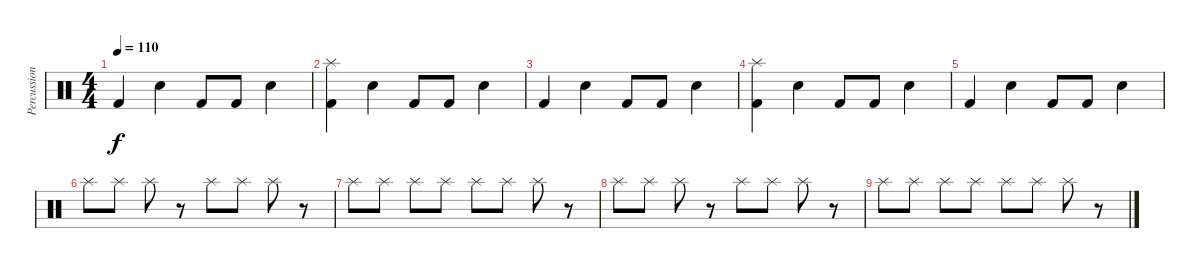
\track ("Percussion" "Percussion") {instrument percussion}
\staff {score}
\articulation defaults
\ts (4 4)
\tempo 110
\clef neutral
\ks c "Kick (hit) 2".4{dy f} "Electric Snare (hit)".4 "Kick (hit) 2".8 "Kick (hit) 2".8 "Electric Snare (hit)".4
|
("Splash (hit)" "Kick (hit) 2").4 "Electric Snare (hit)".4 "Kick (hit) 2".8 "Kick (hit) 2".8 "Electric Snare (hit)".4 |
"Kick (hit) 2".4 "Electric Snare (hit)".4 "Kick (hit) 2".8 "Kick (hit) 2".8 "Electric Snare (hit)".4 |
("Splash (hit)" "Kick (hit) 2").4 "Electric Snare (hit)".4 "Kick (hit) 2".8 "Kick (hit) 2".8 "Electric Snare (hit)".4 |
"Kick (hit) 2".4 "Electric Snare (hit)".4 "Kick (hit) 2".8 "Kick (hit) 2".8 "Electric Snare (hit)".4 |
"Splash (hit)".8 "Splash (hit)".8 "Splash (hit)".8 r.8 "Splash (hit)".8 "Splash (hit)".8 "Splash (hit)".8 r.8 |
"Splash (hit)".8 "Splash (hit)".8 "Splash (hit)".8 "Splash (hit)".8 "Splash (hit)".8 "Splash (hit)".8 "Splash (hit)".8 r.8 |
"Splash (hit)".8 "Splash (hit)".8 "Splash (hit)".8 r.8 "Splash (hit)".8 "Splash (hit)".8 "Splash (hit)".8 r.8 |
"Splash (hit)".8 "Splash (hit)".8 "Splash (hit)".8 "Splash (hit)".8 "Splash (hit)".8 "Splash (hit)".8 "Splash (hit)".8 r.8
